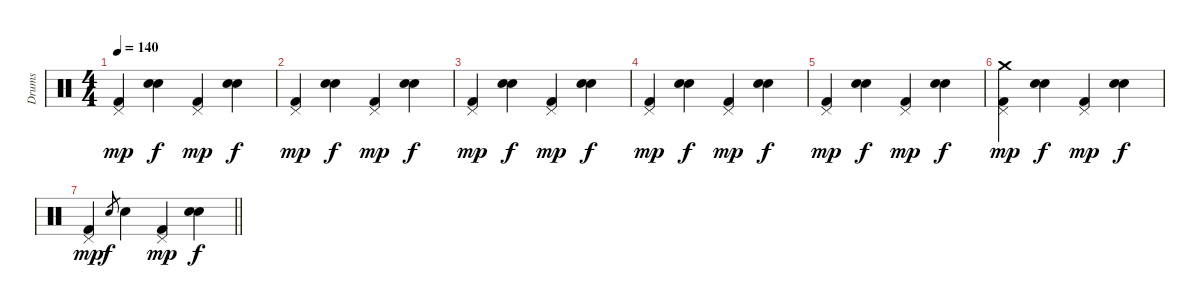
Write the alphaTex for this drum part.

\track ("Drums" "Drums") {instrument percussion}
\staff {score}
\articulation defaults
\ts (4 4)
\tempo 140
\clef neutral
\ks c
("Pedal Hi-Hat (hit)" "Kick (hit) 2").4{dy mp} ("Snare (hit) 2" "Electric Snare (hit)").4{dy f} ("Pedal Hi-Hat (hit)" "Kick (hit) 2").4{dy mp} ("Snare (hit) 2" "Electric Snare (hit)").4{dy f} |
("Pedal Hi-Hat (hit)" "Kick (hit) 2").4{dy mp} ("Snare (hit) 2" "Electric Snare (hit)").4{dy f} ("Pedal Hi-Hat (hit)" "Kick (hit) 2").4{dy mp} ("Snare (hit) 2" "Electric Snare (hit)").4{dy f} |
("Pedal Hi-Hat (hit)" "Kick (hit) 2").4{dy mp} ("Snare (hit) 2" "Electric Snare (hit)").4{dy f} ("Pedal Hi-Hat (hit)" "Kick (hit) 2").4{dy mp} ("Snare (hit) 2" "Electric Snare (hit)").4{dy f} |
("Pedal Hi-Hat (hit)" "Kick (hit) 2").4{dy mp} ("Snare (hit) 2" "Electric Snare (hit)").4{dy f} ("Pedal Hi-Hat (hit)" "Kick (hit) 2").4{dy mp} ("Snare (hit) 2" "Electric Snare (hit)").4{dy f} |
("Pedal Hi-Hat (hit)" "Kick (hit) 2").4{dy mp} ("Snare (hit) 2" "Electric Snare (hit)").4{dy f} ("Pedal Hi-Hat (hit)" "Kick (hit) 2").4{dy mp} ("Snare (hit) 2" "Electric Snare (hit)").4{dy f} |
("Pedal Hi-Hat (hit)" "Crash medium (hit)" "Kick (hit) 2").4{dy mp} ("Snare (hit) 2" "Electric Snare (hit)").4{dy f} ("Pedal Hi-Hat (hit)" "Kick (hit) 2").4{dy mp} ("Snare (hit) 2" "Electric Snare (hit)").4{dy f} |
\barLineRight lightlight
("Pedal Hi-Hat (hit)" "Kick (hit) 2").4{dy mp} "Snare (hit) 2".8{gr dy f} "Electric Snare (hit)".4 ("Pedal Hi-Hat (hit)" "Kick (hit) 2").4{dy mp} ("Snare (hit) 2" "Electric Snare (hit)").4{dy f}
